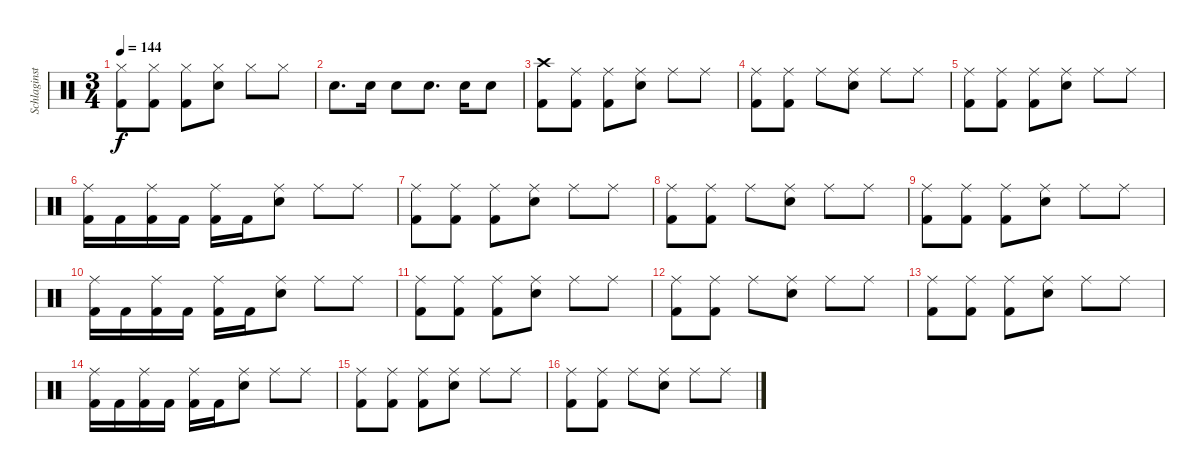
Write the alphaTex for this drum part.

\track ("Schlaginstrumente - Auswahl" "Schlaginst") {instrument percussion}
\staff {score}
\articulation defaults
\ts (3 4)
\tempo 144
\clef neutral
\ks c
("Hi-Hat (closed)" "Kick (hit) 2").8{dy f} ("Hi-Hat (closed)" "Kick (hit) 2").8 ("Hi-Hat (closed)" "Kick (hit) 2").8 ("Hi-Hat (closed)" "Snare (hit) 2").8 "Hi-Hat (closed)".8 "Hi-Hat (closed)".8 |
"Snare (hit) 2".8{d} "Snare (hit) 2".16 "Snare (hit) 2".8 "Snare (hit) 2".8{d} "Snare (hit) 2".16 "Snare (hit) 2".8 |
("Crash high (hit)" "Kick (hit) 2").8 ("Ride (middle)" "Kick (hit) 2").8 ("Ride (middle)" "Kick (hit) 2").8 ("Ride (middle)" "Snare (hit) 2").8 "Ride (middle)".8 "Ride (middle)".8 |
("Ride (middle)" "Kick (hit) 2").8 ("Ride (middle)" "Kick (hit) 2").8 "Ride (middle)".8 ("Ride (middle)" "Snare (hit) 2").8 "Ride (middle)".8 "Ride (middle)".8 |
("Ride (middle)" "Kick (hit) 2").8 ("Ride (middle)" "Kick (hit) 2").8 ("Ride (middle)" "Kick (hit) 2").8 ("Ride (middle)" "Snare (hit) 2").8 "Ride (middle)".8 "Ride (middle)".8 |
("Ride (middle)" "Kick (hit) 2").16 "Kick (hit) 2".16 ("Ride (middle)" "Kick (hit) 2").16 "Kick (hit) 2".16 ("Ride (middle)" "Kick (hit) 2").16 "Kick (hit) 2".16 ("Ride (middle)" "Snare (hit) 2").8 "Ride (middle)".8 "Ride (middle)".8 |
("Ride (middle)" "Kick (hit) 2").8 ("Ride (middle)" "Kick (hit) 2").8 ("Ride (middle)" "Kick (hit) 2").8 ("Ride (middle)" "Snare (hit) 2").8 "Ride (middle)".8 "Ride (middle)".8 |
("Ride (middle)" "Kick (hit) 2").8 ("Ride (middle)" "Kick (hit) 2").8 "Ride (middle)".8 ("Ride (middle)" "Snare (hit) 2").8 "Ride (middle)".8 "Ride (middle)".8 |
("Ride (middle)" "Kick (hit) 2").8 ("Ride (middle)" "Kick (hit) 2").8 ("Ride (middle)" "Kick (hit) 2").8 ("Ride (middle)" "Snare (hit) 2").8 "Ride (middle)".8 "Ride (middle)".8 |
("Ride (middle)" "Kick (hit) 2").16 "Kick (hit) 2".16 ("Ride (middle)" "Kick (hit) 2").16 "Kick (hit) 2".16 ("Ride (middle)" "Kick (hit) 2").16 "Kick (hit) 2".16 ("Ride (middle)" "Snare (hit) 2").8 "Ride (middle)".8 "Ride (middle)".8 |
("Ride (middle)" "Kick (hit) 2").8 ("Ride (middle)" "Kick (hit) 2").8 ("Ride (middle)" "Kick (hit) 2").8 ("Ride (middle)" "Snare (hit) 2").8 "Ride (middle)".8 "Ride (middle)".8 |
("Ride (middle)" "Kick (hit) 2").8 ("Ride (middle)" "Kick (hit) 2").8 "Ride (middle)".8 ("Ride (middle)" "Snare (hit) 2").8 "Ride (middle)".8 "Ride (middle)".8 |
("Ride (middle)" "Kick (hit) 2").8 ("Ride (middle)" "Kick (hit) 2").8 ("Ride (middle)" "Kick (hit) 2").8 ("Ride (middle)" "Snare (hit) 2").8 "Ride (middle)".8 "Ride (middle)".8 |
("Ride (middle)" "Kick (hit) 2").16 "Kick (hit) 2".16 ("Ride (middle)" "Kick (hit) 2").16 "Kick (hit) 2".16 ("Ride (middle)" "Kick (hit) 2").16 "Kick (hit) 2".16 ("Ride (middle)" "Snare (hit) 2").8 "Ride (middle)".8 "Ride (middle)".8 |
("Ride (middle)" "Kick (hit) 2").8 ("Ride (middle)" "Kick (hit) 2").8 ("Ride (middle)" "Kick (hit) 2").8 ("Ride (middle)" "Snare (hit) 2").8 "Ride (middle)".8 "Ride (middle)".8 |
("Ride (middle)" "Kick (hit) 2").8 ("Ride (middle)" "Kick (hit) 2").8 "Ride (middle)".8 ("Ride (middle)" "Snare (hit) 2").8 "Ride (middle)".8 "Ride (middle)".8
